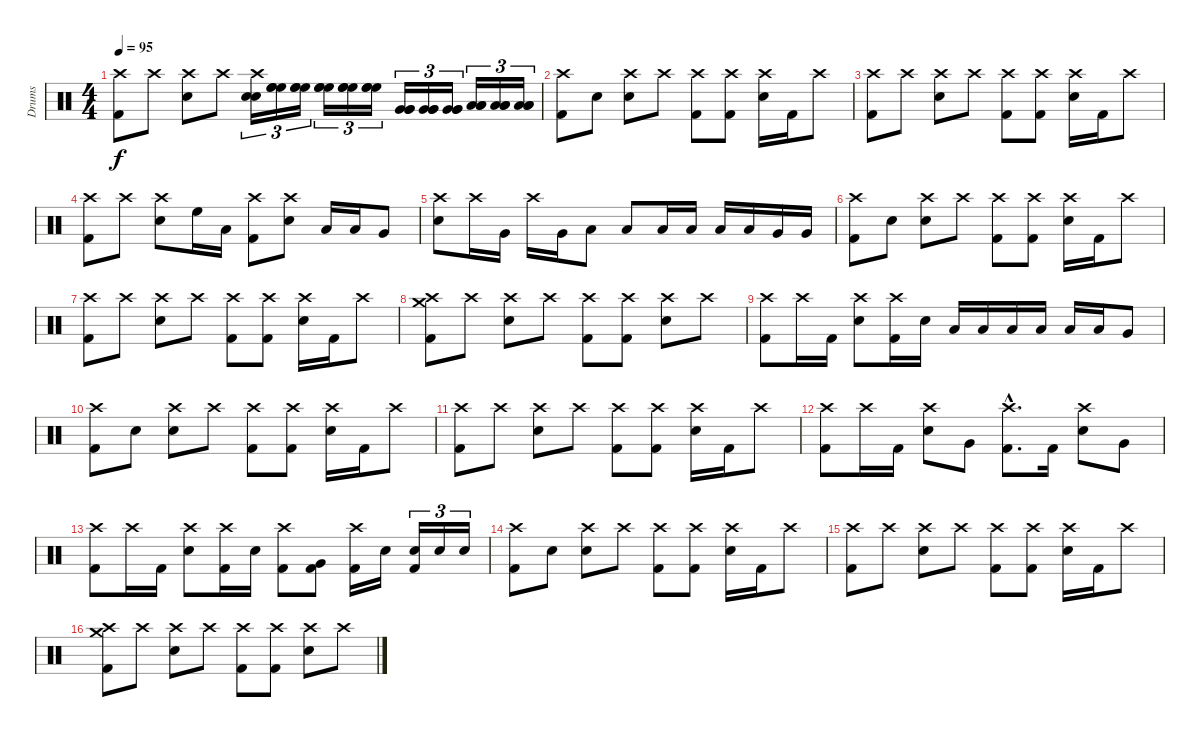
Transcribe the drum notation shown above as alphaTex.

\track ("Drums" "Drums") {instrument percussion}
\staff {score}
\articulation defaults
\ts (4 4)
\tempo 95
\clef neutral
\ks c
("Crash high (hit)" "Kick (hit) 2").8{dy f} "Crash high (hit)".8 ("Snare (hit) 2" "Crash high (hit)").8 "Crash high (hit)".8 ("Crash high (hit)" "Snare (hit)" "Snare (hit)").16{tu (3 2)} ("High Floor Tom (hit)" "High Floor Tom (hit)" "High Floor Tom (hit)").16{tu (3 2)} ("High Floor Tom (hit)" "High Floor Tom (hit)" "High Floor Tom (hit)").16{tu (3 2)} ("High Floor Tom (hit)" "High Floor Tom (hit)" "High Floor Tom (hit)").16{tu (3 2)} ("High Floor Tom (hit)" "High Floor Tom (hit)" "High Floor Tom (hit)").16{tu (3 2)} ("High Floor Tom (hit)" "High Floor Tom (hit)" "High Floor Tom (hit)").16{tu (3 2)} ("Very Low Tom (hit)" "Very Low Tom (hit)" "Very Low Tom (hit)").16{tu (3 2)} ("Very Low Tom (hit)" "Very Low Tom (hit)" "Very Low Tom (hit)").16{tu (3 2)} ("Very Low Tom (hit)" "Very Low Tom (hit)" "Very Low Tom (hit)").16{tu (3 2)} ("Low Floor Tom (hit)" "Low Floor Tom (hit)" "Low Floor Tom (hit)").16{tu (3 2)} ("Low Floor Tom (hit)" "Low Floor Tom (hit)" "Low Floor Tom (hit)").16{tu (3 2)} ("Low Floor Tom (hit)" "Low Floor Tom (hit)" "Low Floor Tom (hit)").16{tu (3 2)} |
("Kick (hit) 2" "Crash high (hit)").8 "Snare (hit)".8 ("Snare (hit) 2" "Crash high (hit)").8 "Crash high (hit)".8 ("Kick (hit) 2" "Crash high (hit)").8 ("Kick (hit) 2" "Crash high (hit)").8 ("Snare (hit) 2" "Crash high (hit)").16 "Kick (hit) 2".16 "Crash high (hit)".8 |
("Kick (hit) 2" "Crash high (hit)").8 "Crash high (hit)".8 ("Snare (hit) 2" "Crash high (hit)").8 "Crash high (hit)".8 ("Kick (hit) 2" "Crash high (hit)").8 ("Kick (hit) 2" "Crash high (hit)").8 ("Snare (hit) 2" "Crash high (hit)").16 "Kick (hit) 2".16 "Crash high (hit)".8 |
("Crash high (hit)" "Kick (hit) 2").8 "Crash high (hit)".8 ("Snare (hit) 2" "Crash high (hit)").8 "High Floor Tom (hit)".16 "Low Tom (hit)".16 ("Kick (hit) 2" "Crash high (hit)").8 ("Crash high (hit)" "Snare (hit) 2").8 "Low Tom (hit)".16 "Low Tom (hit)".16 "Very Low Tom (hit)".8 |
("Snare (hit) 2" "Crash high (hit)").8 "Crash high (hit)".16 "Very Low Tom (hit)".16 "Crash high (hit)".16 "Very Low Tom (hit)".16 "Low Floor Tom (hit)".8 "Low Tom (hit)".8 "Low Tom (hit)".16 "Low Tom (hit)".16 "Low Tom (hit)".16 "Low Tom (hit)".16 "Very Low Tom (hit)".16 "Very Low Tom (hit)".16 |
("Kick (hit) 2" "Crash high (hit)").8 "Snare (hit)".8 ("Snare (hit) 2" "Crash high (hit)").8 "Crash high (hit)".8 ("Kick (hit) 2" "Crash high (hit)").8 ("Kick (hit) 2" "Crash high (hit)").8 ("Snare (hit) 2" "Crash high (hit)").16 "Kick (hit) 2".16 "Crash high (hit)".8 |
("Kick (hit) 2" "Crash high (hit)").8 "Crash high (hit)".8 ("Snare (hit) 2" "Crash high (hit)").8 "Crash high (hit)".8 ("Kick (hit) 2" "Crash high (hit)").8 ("Kick (hit) 2" "Crash high (hit)").8 ("Snare (hit) 2" "Crash high (hit)").16 "Kick (hit) 2".16 "Crash high (hit)".8 |
("Crash medium (hit)" "Crash high (hit)" "Kick (hit) 2").8 "Crash high (hit)".8 ("Crash high (hit)" "Snare (hit) 2").8 "Crash high (hit)".8 ("Crash high (hit)" "Kick (hit) 2").8 ("Crash high (hit)" "Kick (hit) 2").8 ("Crash high (hit)" "Snare (hit) 2").8 "Crash high (hit)".8 |
("Kick (hit) 2" "Crash high (hit)").8 "Crash high (hit)".16 "Kick (hit) 2".16 ("Crash high (hit)" "Snare (hit) 2").8 ("Kick (hit) 2" "Crash high (hit)").16 "Snare (hit) 2".16 "Low Tom (hit)".16 "Low Tom (hit)".16 "Low Tom (hit)".16 "Low Tom (hit)".16 "Low Tom (hit)".16 "Low Tom (hit)".16 "Very Low Tom (hit)".8 |
("Kick (hit) 2" "Crash high (hit)").8 "Snare (hit)".8 ("Snare (hit) 2" "Crash high (hit)").8 "Crash high (hit)".8 ("Kick (hit) 2" "Crash high (hit)").8 ("Kick (hit) 2" "Crash high (hit)").8 ("Snare (hit) 2" "Crash high (hit)").16 "Kick (hit) 2".16 "Crash high (hit)".8 |
("Kick (hit) 2" "Crash high (hit)").8 "Crash high (hit)".8 ("Snare (hit) 2" "Crash high (hit)").8 "Crash high (hit)".8 ("Kick (hit) 2" "Crash high (hit)").8 ("Kick (hit) 2" "Crash high (hit)").8 ("Snare (hit) 2" "Crash high (hit)").16 "Kick (hit) 2".16 "Crash high (hit)".8 |
("Crash high (hit)" "Kick (hit) 2").8 "Crash high (hit)".16 "Kick (hit) 2".16 ("Snare (hit) 2" "Crash high (hit)").8 "Very Low Tom (hit)".8 ("Crash high (hit)"{hac} "Kick (hit) 2"{hac}).8{d} "Kick (hit) 2".16 ("Crash high (hit)" "Snare (hit) 2").8 "Very Low Tom (hit)".8 |
("Crash high (hit)" "Kick (hit) 2").8 "Crash high (hit)".16 "Kick (hit) 2".16 ("Snare (hit) 2" "Crash high (hit)").8 ("Crash high (hit)" "Kick (hit) 2").16 "Snare (hit) 2".16 ("Crash high (hit)" "Kick (hit) 2").8 ("Kick (hit) 2" "Very Low Tom (hit)").8 ("Crash high (hit)" "Kick (hit) 2").16 "Snare (hit) 2".16 ("Kick (hit) 2" "Snare (hit) 2").16{tu (3 2)} "Snare (hit) 2".16{tu (3 2)} "Snare (hit) 2".16{tu (3 2)} |
("Kick (hit) 2" "Crash high (hit)").8 "Snare (hit)".8 ("Snare (hit) 2" "Crash high (hit)").8 "Crash high (hit)".8 ("Kick (hit) 2" "Crash high (hit)").8 ("Kick (hit) 2" "Crash high (hit)").8 ("Snare (hit) 2" "Crash high (hit)").16 "Kick (hit) 2".16 "Crash high (hit)".8 |
("Kick (hit) 2" "Crash high (hit)").8 "Crash high (hit)".8 ("Snare (hit) 2" "Crash high (hit)").8 "Crash high (hit)".8 ("Kick (hit) 2" "Crash high (hit)").8 ("Kick (hit) 2" "Crash high (hit)").8 ("Snare (hit) 2" "Crash high (hit)").16 "Kick (hit) 2".16 "Crash high (hit)".8 |
("Crash medium (hit)" "Crash high (hit)" "Kick (hit) 2").8 "Crash high (hit)".8 ("Crash high (hit)" "Snare (hit) 2").8 "Crash high (hit)".8 ("Crash high (hit)" "Kick (hit) 2").8 ("Crash high (hit)" "Kick (hit) 2").8 ("Crash high (hit)" "Snare (hit) 2").8 "Crash high (hit)".8
